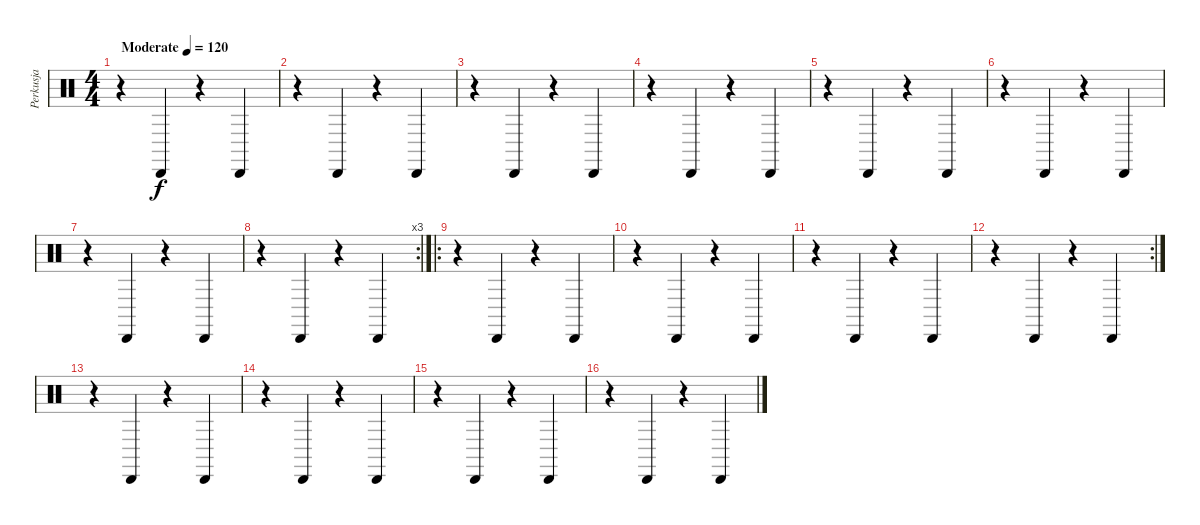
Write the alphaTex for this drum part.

\track ("Perkusja" "Perkusja") {instrument percussion}
\staff {score}
\articulation defaults
\ts (4 4)
\tempo (120 "Moderate")
\clef neutral
\ks c
r.4{dy f} "Cabasa (hit)".4 r.4 "Cabasa (hit)".4 |
r.4 "Cabasa (hit)".4 r.4 "Cabasa (hit)".4 |
r.4 "Cabasa (hit)".4 r.4 "Cabasa (hit)".4 |
r.4 "Cabasa (hit)".4 r.4 "Cabasa (hit)".4 |
r.4 "Cabasa (hit)".4 r.4 "Cabasa (hit)".4 |
r.4 "Cabasa (hit)".4 r.4 "Cabasa (hit)".4 |
r.4 "Cabasa (hit)".4 r.4 "Cabasa (hit)".4 |
\rc 3
r.4 "Cabasa (hit)".4 r.4 "Cabasa (hit)".4 |
\ro
r.4 "Cabasa (hit)".4 r.4 "Cabasa (hit)".4 |
r.4 "Cabasa (hit)".4 r.4 "Cabasa (hit)".4 |
r.4 "Cabasa (hit)".4 r.4 "Cabasa (hit)".4 |
\rc 2
r.4 "Cabasa (hit)".4 r.4 "Cabasa (hit)".4 |
r.4 "Cabasa (hit)".4 r.4 "Cabasa (hit)".4 |
r.4 "Cabasa (hit)".4 r.4 "Cabasa (hit)".4 |
r.4 "Cabasa (hit)".4 r.4 "Cabasa (hit)".4 |
r.4 "Cabasa (hit)".4 r.4 "Cabasa (hit)".4
